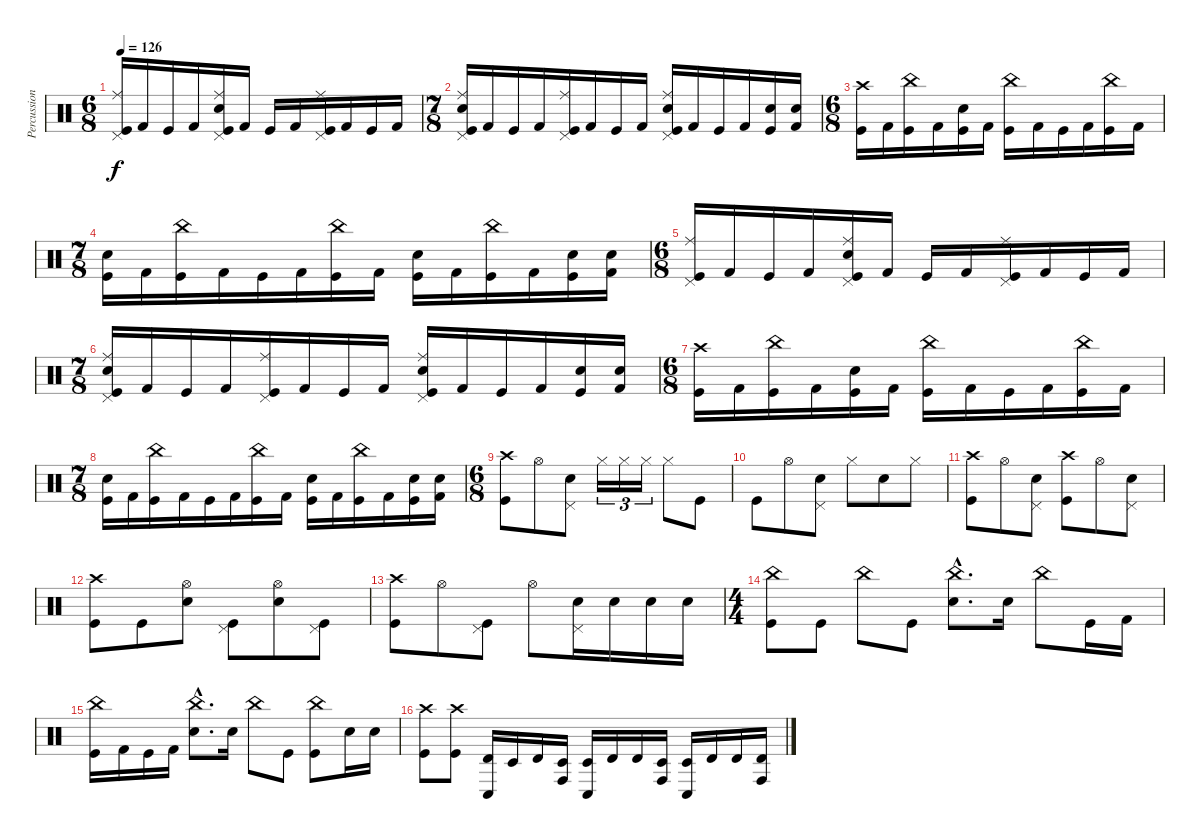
\track ("Percussion" "Percussion") {instrument percussion}
\staff {score}
\articulation defaults
\ts (6 8)
\tempo 126
\clef neutral
\ks c
("Pedal Hi-Hat (hit)" "Ride (middle)" "Kick (hit)").16{dy f} "Kick (hit) 2".16 "Kick (hit)".16 "Kick (hit) 2".16 ("Pedal Hi-Hat (hit)" "Ride (middle)" "Snare (hit) 2" "Kick (hit)").16 "Kick (hit) 2".16 "Kick (hit)".16 "Kick (hit) 2".16 ("Pedal Hi-Hat (hit)" "Ride (middle)" "Kick (hit)").16 "Kick (hit) 2".16 "Kick (hit)".16 "Kick (hit) 2".16 |
\ts (7 8)
("Pedal Hi-Hat (hit)" "Ride (middle)" "Snare (hit) 2" "Kick (hit)").16 "Kick (hit) 2".16 "Kick (hit)".16 "Kick (hit) 2".16 ("Pedal Hi-Hat (hit)" "Ride (middle)" "Kick (hit)").16 "Kick (hit) 2".16 "Kick (hit)".16 "Kick (hit) 2".16 ("Pedal Hi-Hat (hit)" "Ride (middle)" "Snare (hit) 2" "Kick (hit)").16 "Kick (hit) 2".16 "Kick (hit)".16 "Kick (hit) 2".16 ("Snare (hit) 2" "Kick (hit)").16 ("Snare (hit) 2" "Kick (hit) 2").16 |
\ts (6 8)
("Kick (hit)" "Crash high (hit)").16 "Kick (hit) 2".16 ("Kick (hit)" "China (hit)").16 "Kick (hit) 2".16 ("Kick (hit)" "Snare (hit) 2").16 "Kick (hit) 2".16 ("Kick (hit)" "China (hit)").16 "Kick (hit) 2".16 "Kick (hit)".16 "Kick (hit) 2".16 ("Kick (hit)" "China (hit)").16 "Kick (hit) 2".16 |
\ts (7 8)
("Snare (hit) 2" "Kick (hit)").16 "Kick (hit) 2".16 ("China (hit)" "Kick (hit)").16 "Kick (hit) 2".16 "Kick (hit)".16 "Kick (hit) 2".16 ("China (hit)" "Kick (hit)").16 "Kick (hit) 2".16 ("Snare (hit) 2" "Kick (hit)").16 "Kick (hit) 2".16 ("China (hit)" "Kick (hit)").16 "Kick (hit) 2".16 ("Snare (hit) 2" "Kick (hit)").16 ("Snare (hit) 2" "Kick (hit) 2").16 |
\ts (6 8)
("Pedal Hi-Hat (hit)" "Ride (middle)" "Kick (hit)").16 "Kick (hit) 2".16 "Kick (hit)".16 "Kick (hit) 2".16 ("Pedal Hi-Hat (hit)" "Ride (middle)" "Snare (hit) 2" "Kick (hit)").16 "Kick (hit) 2".16 "Kick (hit)".16 "Kick (hit) 2".16 ("Pedal Hi-Hat (hit)" "Ride (middle)" "Kick (hit)").16 "Kick (hit) 2".16 "Kick (hit)".16 "Kick (hit) 2".16 |
\ts (7 8)
("Pedal Hi-Hat (hit)" "Ride (middle)" "Snare (hit) 2" "Kick (hit)").16 "Kick (hit) 2".16 "Kick (hit)".16 "Kick (hit) 2".16 ("Pedal Hi-Hat (hit)" "Ride (middle)" "Kick (hit)").16 "Kick (hit) 2".16 "Kick (hit)".16 "Kick (hit) 2".16 ("Pedal Hi-Hat (hit)" "Ride (middle)" "Snare (hit) 2" "Kick (hit)").16 "Kick (hit) 2".16 "Kick (hit)".16 "Kick (hit) 2".16 ("Snare (hit) 2" "Kick (hit)").16 ("Snare (hit) 2" "Kick (hit) 2").16 |
\ts (6 8)
("Kick (hit)" "Crash high (hit)").16 "Kick (hit) 2".16 ("Kick (hit)" "China (hit)").16 "Kick (hit) 2".16 ("Kick (hit)" "Snare (hit) 2").16 "Kick (hit) 2".16 ("Kick (hit)" "China (hit)").16 "Kick (hit) 2".16 "Kick (hit)".16 "Kick (hit) 2".16 ("Kick (hit)" "China (hit)").16 "Kick (hit) 2".16 |
\ts (7 8)
("Snare (hit) 2" "Kick (hit)").16 "Kick (hit) 2".16 ("China (hit)" "Kick (hit)").16 "Kick (hit) 2".16 "Kick (hit)".16 "Kick (hit) 2".16 ("China (hit)" "Kick (hit)").16 "Kick (hit) 2".16 ("Snare (hit) 2" "Kick (hit)").16 "Kick (hit) 2".16 ("China (hit)" "Kick (hit)").16 "Kick (hit) 2".16 ("Snare (hit) 2" "Kick (hit)").16 ("Snare (hit) 2" "Kick (hit) 2").16 |
\ts (6 8)
("Crash high (hit)" "Kick (hit)").8 "Hi-Hat (open)".8 ("Snare (hit) 2" "Pedal Hi-Hat (hit)").8 "Hi-Hat (closed)".16{tu (3 2)} "Hi-Hat (closed)".16{tu (3 2)} "Hi-Hat (closed)".16{tu (3 2)} "Hi-Hat (closed)".8 "Kick (hit)".8 |
"Kick (hit)".8 "Hi-Hat (open)".8 ("Snare (hit) 2" "Pedal Hi-Hat (hit)").8 "Hi-Hat (closed)".8 "Snare (hit) 2".8 "Hi-Hat (closed)".8 |
("Crash high (hit)" "Kick (hit)").8 "Hi-Hat (open)".8 ("Snare (hit) 2" "Pedal Hi-Hat (hit)").8 ("Crash high (hit)" "Kick (hit)").8 "Hi-Hat (open)".8 ("Snare (hit) 2" "Pedal Hi-Hat (hit)").8 |
("Kick (hit)" "Crash high (hit)").8 "Kick (hit)".8 ("Hi-Hat (open)" "Snare (hit) 2").8 ("Kick (hit)" "Pedal Hi-Hat (hit)").8 ("Electric Snare (hit)" "Hi-Hat (open)").8 ("Kick (hit)" "Pedal Hi-Hat (hit)").8 |
("Kick (hit)" "Crash high (hit)").8 "Hi-Hat (open)".8 ("Kick (hit)" "Pedal Hi-Hat (hit)").8 "Hi-Hat (open)".8 ("Snare (hit) 2" "Pedal Hi-Hat (hit)").16 "Snare (hit) 2".16 "Snare (hit) 2".16 "Snare (hit) 2".16 |
\ts (4 4)
("China (hit)" "Kick (hit)").8 "Kick (hit)".8 "China (hit)".8 "Kick (hit)".8 ("Snare (hit) 2"{hac} "China (hit)"{hac}).8{d} "Snare (hit) 2".16 "China (hit)".8 "Kick (hit)".16 "Kick (hit) 2".16 |
("China (hit)" "Kick (hit)").16 "Kick (hit) 2".16 "Kick (hit)".16 "Kick (hit) 2".16 ("China (hit)"{hac} "Snare (hit) 2"{hac}).8{d} "Snare (hit) 2".16 "China (hit)".8 "Kick (hit)".8 ("China (hit)" "Kick (hit)").8 "Snare (hit) 2".16 "Snare (hit) 2".16 |
("Crash high (hit)" "Kick (hit)").8 ("Crash high (hit)" "Kick (hit)").8 ("Conga low (hit)" "Timbale high (hit)").16 "Timbale low (hit)".16 "Timbale high (hit)".16 ("Conga high (hit)" "Timbale low (hit)").16 ("Conga low (hit)" "Timbale low (hit)").16 "Timbale high (hit)".16 "Timbale high (hit)".16 ("Conga high (hit)" "Timbale low (hit)").16 ("Conga low (hit)" "Timbale low (hit)").16 "Timbale high (hit)".16 "Timbale high (hit)".16 ("Conga high (hit)" "Timbale high (hit)").16
